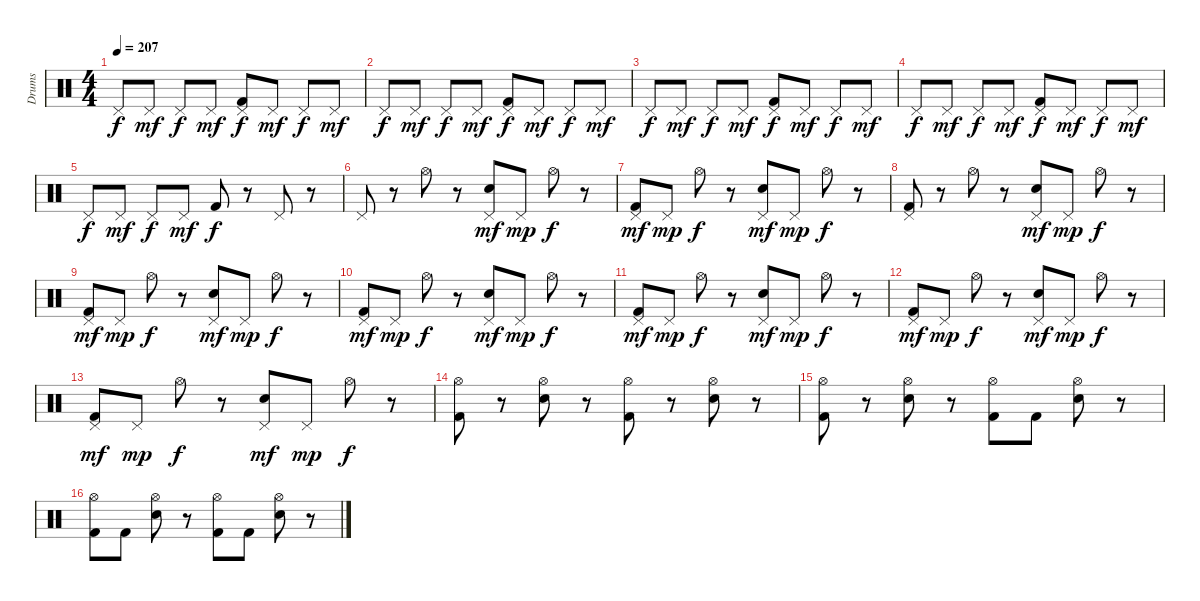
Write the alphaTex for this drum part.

\track ("Drums" "Drums") {instrument percussion}
\staff {score}
\articulation defaults
\ts (4 4)
\tempo 207
\clef neutral
\ks c "Pedal Hi-Hat (hit)".8{dy f} "Pedal Hi-Hat (hit)".8{dy mf} "Pedal Hi-Hat (hit)".8{dy f} "Pedal Hi-Hat (hit)".8{dy mf}
("Pedal Hi-Hat (hit)" "Kick (hit) 2").8{dy f} "Pedal Hi-Hat (hit)".8{dy mf} "Pedal Hi-Hat (hit)".8{dy f} "Pedal Hi-Hat (hit)".8{dy mf} |
"Pedal Hi-Hat (hit)".8{dy f} "Pedal Hi-Hat (hit)".8{dy mf} "Pedal Hi-Hat (hit)".8{dy f} "Pedal Hi-Hat (hit)".8{dy mf} ("Pedal Hi-Hat (hit)" "Kick (hit) 2").8{dy f} "Pedal Hi-Hat (hit)".8{dy mf} "Pedal Hi-Hat (hit)".8{dy f} "Pedal Hi-Hat (hit)".8{dy mf} |
"Pedal Hi-Hat (hit)".8{dy f} "Pedal Hi-Hat (hit)".8{dy mf} "Pedal Hi-Hat (hit)".8{dy f} "Pedal Hi-Hat (hit)".8{dy mf} ("Pedal Hi-Hat (hit)" "Kick (hit) 2").8{dy f} "Pedal Hi-Hat (hit)".8{dy mf} "Pedal Hi-Hat (hit)".8{dy f} "Pedal Hi-Hat (hit)".8{dy mf} |
"Pedal Hi-Hat (hit)".8{dy f} "Pedal Hi-Hat (hit)".8{dy mf} "Pedal Hi-Hat (hit)".8{dy f} "Pedal Hi-Hat (hit)".8{dy mf} ("Pedal Hi-Hat (hit)" "Kick (hit) 2").8{dy f} "Pedal Hi-Hat (hit)".8{dy mf} "Pedal Hi-Hat (hit)".8{dy f} "Pedal Hi-Hat (hit)".8{dy mf} |
"Pedal Hi-Hat (hit)".8{dy f} "Pedal Hi-Hat (hit)".8{dy mf} "Pedal Hi-Hat (hit)".8{dy f} "Pedal Hi-Hat (hit)".8{dy mf} "Kick (hit) 2".8{dy f} r.8 "Pedal Hi-Hat (hit)".8 r.8 |
"Pedal Hi-Hat (hit)".8 r.8 "Hi-Hat (open)".8 r.8 ("Pedal Hi-Hat (hit)" "Snare (hit) 2").8{dy mf} "Pedal Hi-Hat (hit)".8{dy mp} "Hi-Hat (open)".8{dy f} r.8 |
("Pedal Hi-Hat (hit)" "Kick (hit) 2").8{dy mf} "Pedal Hi-Hat (hit)".8{dy mp} "Hi-Hat (open)".8{dy f} r.8 ("Pedal Hi-Hat (hit)" "Snare (hit) 2").8{dy mf} "Pedal Hi-Hat (hit)".8{dy mp} "Hi-Hat (open)".8{dy f} r.8 |
("Pedal Hi-Hat (hit)" "Kick (hit) 2").8 r.8 "Hi-Hat (open)".8 r.8 ("Pedal Hi-Hat (hit)" "Snare (hit) 2").8{dy mf} "Pedal Hi-Hat (hit)".8{dy mp} "Hi-Hat (open)".8{dy f} r.8 |
("Pedal Hi-Hat (hit)" "Kick (hit) 2").8{dy mf} "Pedal Hi-Hat (hit)".8{dy mp} "Hi-Hat (open)".8{dy f} r.8 ("Pedal Hi-Hat (hit)" "Snare (hit) 2").8{dy mf} "Pedal Hi-Hat (hit)".8{dy mp} "Hi-Hat (open)".8{dy f} r.8 |
("Pedal Hi-Hat (hit)" "Kick (hit) 2").8{dy mf} "Pedal Hi-Hat (hit)".8{dy mp} "Hi-Hat (open)".8{dy f} r.8 ("Pedal Hi-Hat (hit)" "Snare (hit) 2").8{dy mf} "Pedal Hi-Hat (hit)".8{dy mp} "Hi-Hat (open)".8{dy f} r.8 |
("Pedal Hi-Hat (hit)" "Kick (hit) 2").8{dy mf} "Pedal Hi-Hat (hit)".8{dy mp} "Hi-Hat (open)".8{dy f} r.8 ("Pedal Hi-Hat (hit)" "Snare (hit) 2").8{dy mf} "Pedal Hi-Hat (hit)".8{dy mp} "Hi-Hat (open)".8{dy f} r.8 |
("Pedal Hi-Hat (hit)" "Kick (hit) 2").8{dy mf} "Pedal Hi-Hat (hit)".8{dy mp} "Hi-Hat (open)".8{dy f} r.8 ("Pedal Hi-Hat (hit)" "Snare (hit) 2").8{dy mf} "Pedal Hi-Hat (hit)".8{dy mp} "Hi-Hat (open)".8{dy f} r.8 |
("Pedal Hi-Hat (hit)" "Kick (hit) 2").8{dy mf} "Pedal Hi-Hat (hit)".8{dy mp} "Hi-Hat (open)".8{dy f} r.8 ("Pedal Hi-Hat (hit)" "Snare (hit) 2").8{dy mf} "Pedal Hi-Hat (hit)".8{dy mp} "Hi-Hat (open)".8{dy f} r.8 |
("Hi-Hat (open)" "Kick (hit) 2").8 r.8 ("Hi-Hat (open)" "Snare (hit) 2").8 r.8 ("Hi-Hat (open)" "Kick (hit) 2").8 r.8 ("Hi-Hat (open)" "Snare (hit) 2").8 r.8 |
("Hi-Hat (open)" "Kick (hit) 2").8 r.8 ("Hi-Hat (open)" "Snare (hit) 2").8 r.8 ("Hi-Hat (open)" "Kick (hit) 2").8 "Kick (hit) 2".8 ("Hi-Hat (open)" "Snare (hit) 2").8 r.8 |
("Hi-Hat (open)" "Kick (hit) 2").8 "Kick (hit) 2".8 ("Hi-Hat (open)" "Snare (hit) 2").8 r.8 ("Hi-Hat (open)" "Kick (hit) 2").8 "Kick (hit) 2".8 ("Hi-Hat (open)" "Snare (hit) 2").8 r.8
